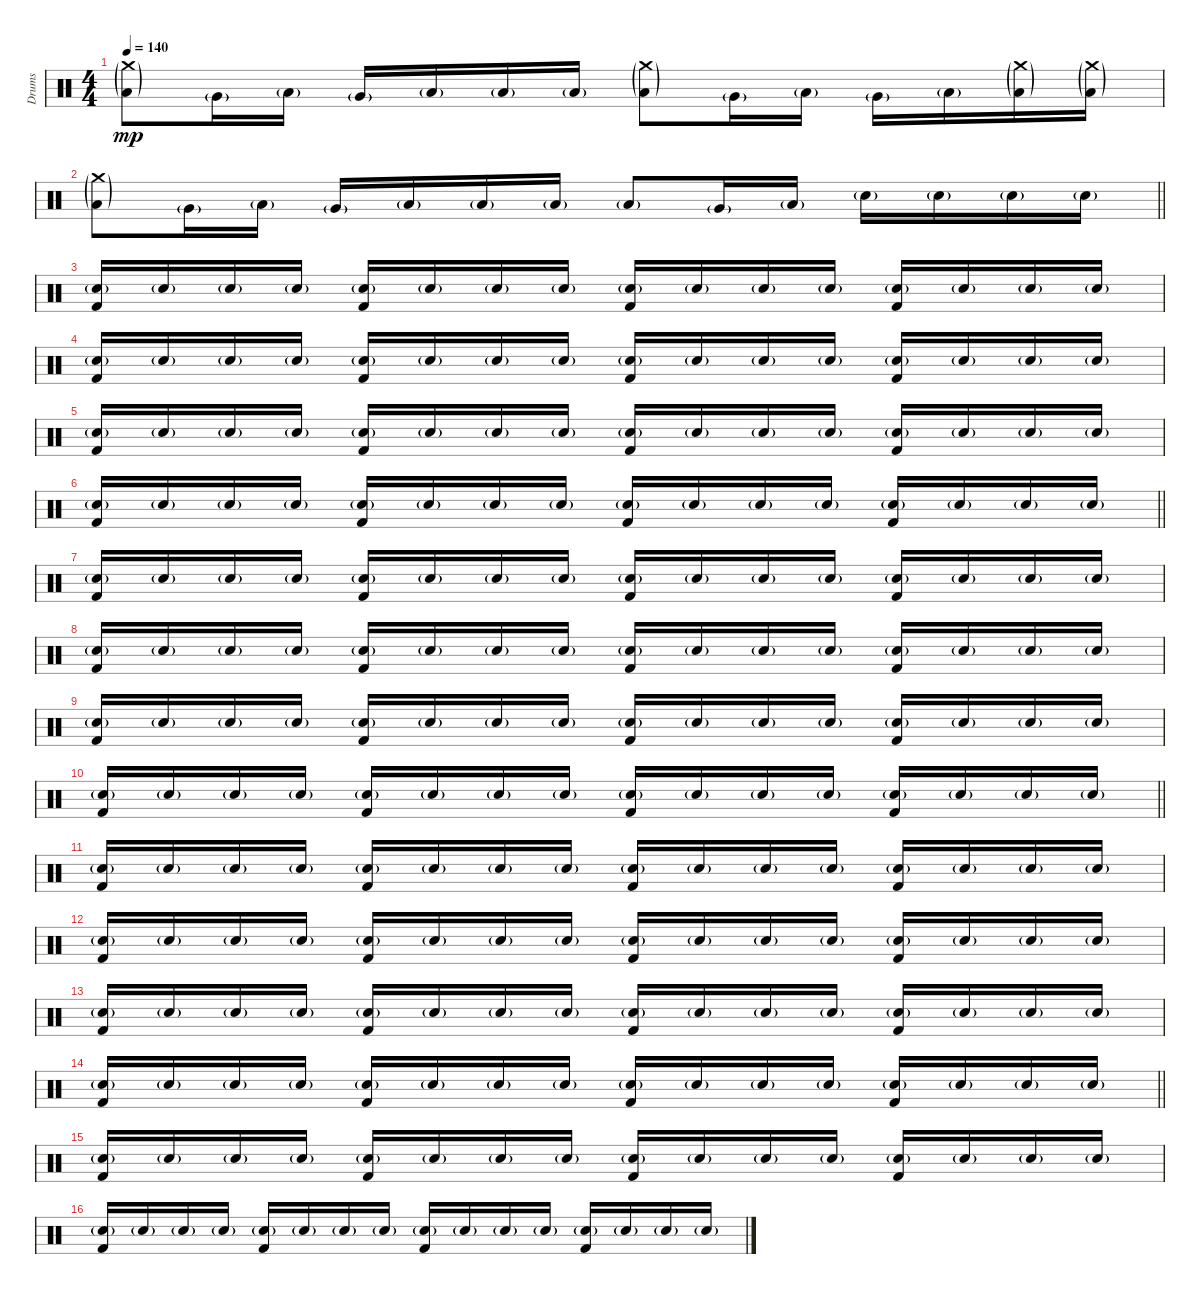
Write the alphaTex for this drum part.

\track ("Drums" "Drums") {instrument percussion}
\staff {score}
\articulation defaults
\ts (4 4)
\tempo 140
\clef neutral
\ks c
("Low Tom (hit)"{g} "Crash medium (hit)"{g}).8{dy mp} "Very Low Tom (hit)"{g}.16 "Low Tom (hit)"{g}.16 "Very Low Tom (hit)"{g}.16 "Low Floor Tom (hit)"{g}.16 "Low Floor Tom (hit)"{g}.16 "Low Floor Tom (hit)"{g}.16 ("Low Tom (hit)"{g} "Crash medium (hit)"{g}).8 "Very Low Tom (hit)"{g}.16 "Low Tom (hit)"{g}.16 "Very Low Tom (hit)"{g}.16 "Low Floor Tom (hit)"{g}.16 ("Low Floor Tom (hit)"{g} "Crash medium (hit)"{g}).16 ("Low Floor Tom (hit)"{g} "Crash medium (hit)"{g}).16 |
\barLineRight lightlight
("Low Tom (hit)"{g} "Crash medium (hit)"{g}).8 "Very Low Tom (hit)"{g}.16 "Low Tom (hit)"{g}.16 "Very Low Tom (hit)"{g}.16 "Low Floor Tom (hit)"{g}.16 "Low Floor Tom (hit)"{g}.16 "Low Floor Tom (hit)"{g}.16 "Low Tom (hit)"{g}.8 "Very Low Tom (hit)"{g}.16 "Low Tom (hit)"{g}.16 "Snare (hit) 2"{g}.16 "Snare (hit) 2"{g}.16 "Snare (hit) 2"{g}.16 "Snare (hit) 2"{g}.16 |
\section ("" "")
("Kick (hit) 2" "Snare (hit) 2"{g}).16 "Snare (hit) 2"{g}.16 "Snare (hit) 2"{g}.16 "Snare (hit) 2"{g}.16 ("Kick (hit) 2" "Snare (hit) 2"{g}).16 "Snare (hit) 2"{g}.16 "Snare (hit) 2"{g}.16 "Snare (hit) 2"{g}.16 ("Kick (hit) 2" "Snare (hit) 2"{g}).16 "Snare (hit) 2"{g}.16 "Snare (hit) 2"{g}.16 "Snare (hit) 2"{g}.16 ("Kick (hit) 2" "Snare (hit) 2"{g}).16 "Snare (hit) 2"{g}.16 "Snare (hit) 2"{g}.16 "Snare (hit) 2"{g}.16 |
("Kick (hit) 2" "Snare (hit) 2"{g}).16 "Snare (hit) 2"{g}.16 "Snare (hit) 2"{g}.16 "Snare (hit) 2"{g}.16 ("Kick (hit) 2" "Snare (hit) 2"{g}).16 "Snare (hit) 2"{g}.16 "Snare (hit) 2"{g}.16 "Snare (hit) 2"{g}.16 ("Kick (hit) 2" "Snare (hit) 2"{g}).16 "Snare (hit) 2"{g}.16 "Snare (hit) 2"{g}.16 "Snare (hit) 2"{g}.16 ("Kick (hit) 2" "Snare (hit) 2"{g}).16 "Snare (hit) 2"{g}.16 "Snare (hit) 2"{g}.16 "Snare (hit) 2"{g}.16 |
("Kick (hit) 2" "Snare (hit) 2"{g}).16 "Snare (hit) 2"{g}.16 "Snare (hit) 2"{g}.16 "Snare (hit) 2"{g}.16 ("Kick (hit) 2" "Snare (hit) 2"{g}).16 "Snare (hit) 2"{g}.16 "Snare (hit) 2"{g}.16 "Snare (hit) 2"{g}.16 ("Kick (hit) 2" "Snare (hit) 2"{g}).16 "Snare (hit) 2"{g}.16 "Snare (hit) 2"{g}.16 "Snare (hit) 2"{g}.16 ("Kick (hit) 2" "Snare (hit) 2"{g}).16 "Snare (hit) 2"{g}.16 "Snare (hit) 2"{g}.16 "Snare (hit) 2"{g}.16 |
\barLineRight lightlight
("Kick (hit) 2" "Snare (hit) 2"{g}).16 "Snare (hit) 2"{g}.16 "Snare (hit) 2"{g}.16 "Snare (hit) 2"{g}.16 ("Kick (hit) 2" "Snare (hit) 2"{g}).16 "Snare (hit) 2"{g}.16 "Snare (hit) 2"{g}.16 "Snare (hit) 2"{g}.16 ("Kick (hit) 2" "Snare (hit) 2"{g}).16 "Snare (hit) 2"{g}.16 "Snare (hit) 2"{g}.16 "Snare (hit) 2"{g}.16 ("Kick (hit) 2" "Snare (hit) 2"{g}).16 "Snare (hit) 2"{g}.16 "Snare (hit) 2"{g}.16 "Snare (hit) 2"{g}.16 |
\section ("" "")
("Kick (hit) 2" "Snare (hit) 2"{g}).16 "Snare (hit) 2"{g}.16 "Snare (hit) 2"{g}.16 "Snare (hit) 2"{g}.16 ("Kick (hit) 2" "Snare (hit) 2"{g}).16 "Snare (hit) 2"{g}.16 "Snare (hit) 2"{g}.16 "Snare (hit) 2"{g}.16 ("Kick (hit) 2" "Snare (hit) 2"{g}).16 "Snare (hit) 2"{g}.16 "Snare (hit) 2"{g}.16 "Snare (hit) 2"{g}.16 ("Kick (hit) 2" "Snare (hit) 2"{g}).16 "Snare (hit) 2"{g}.16 "Snare (hit) 2"{g}.16 "Snare (hit) 2"{g}.16 |
("Kick (hit) 2" "Snare (hit) 2"{g}).16 "Snare (hit) 2"{g}.16 "Snare (hit) 2"{g}.16 "Snare (hit) 2"{g}.16 ("Kick (hit) 2" "Snare (hit) 2"{g}).16 "Snare (hit) 2"{g}.16 "Snare (hit) 2"{g}.16 "Snare (hit) 2"{g}.16 ("Kick (hit) 2" "Snare (hit) 2"{g}).16 "Snare (hit) 2"{g}.16 "Snare (hit) 2"{g}.16 "Snare (hit) 2"{g}.16 ("Kick (hit) 2" "Snare (hit) 2"{g}).16 "Snare (hit) 2"{g}.16 "Snare (hit) 2"{g}.16 "Snare (hit) 2"{g}.16 |
("Kick (hit) 2" "Snare (hit) 2"{g}).16 "Snare (hit) 2"{g}.16 "Snare (hit) 2"{g}.16 "Snare (hit) 2"{g}.16 ("Kick (hit) 2" "Snare (hit) 2"{g}).16 "Snare (hit) 2"{g}.16 "Snare (hit) 2"{g}.16 "Snare (hit) 2"{g}.16 ("Kick (hit) 2" "Snare (hit) 2"{g}).16 "Snare (hit) 2"{g}.16 "Snare (hit) 2"{g}.16 "Snare (hit) 2"{g}.16 ("Kick (hit) 2" "Snare (hit) 2"{g}).16 "Snare (hit) 2"{g}.16 "Snare (hit) 2"{g}.16 "Snare (hit) 2"{g}.16 |
\barLineRight lightlight
("Kick (hit) 2" "Snare (hit) 2"{g}).16 "Snare (hit) 2"{g}.16 "Snare (hit) 2"{g}.16 "Snare (hit) 2"{g}.16 ("Kick (hit) 2" "Snare (hit) 2"{g}).16 "Snare (hit) 2"{g}.16 "Snare (hit) 2"{g}.16 "Snare (hit) 2"{g}.16 ("Kick (hit) 2" "Snare (hit) 2"{g}).16 "Snare (hit) 2"{g}.16 "Snare (hit) 2"{g}.16 "Snare (hit) 2"{g}.16 ("Kick (hit) 2" "Snare (hit) 2"{g}).16 "Snare (hit) 2"{g}.16 "Snare (hit) 2"{g}.16 "Snare (hit) 2"{g}.16 |
\section ("" "")
("Kick (hit) 2" "Snare (hit) 2"{g}).16 "Snare (hit) 2"{g}.16 "Snare (hit) 2"{g}.16 "Snare (hit) 2"{g}.16 ("Kick (hit) 2" "Snare (hit) 2"{g}).16 "Snare (hit) 2"{g}.16 "Snare (hit) 2"{g}.16 "Snare (hit) 2"{g}.16 ("Kick (hit) 2" "Snare (hit) 2"{g}).16 "Snare (hit) 2"{g}.16 "Snare (hit) 2"{g}.16 "Snare (hit) 2"{g}.16 ("Kick (hit) 2" "Snare (hit) 2"{g}).16 "Snare (hit) 2"{g}.16 "Snare (hit) 2"{g}.16 "Snare (hit) 2"{g}.16 |
("Kick (hit) 2" "Snare (hit) 2"{g}).16 "Snare (hit) 2"{g}.16 "Snare (hit) 2"{g}.16 "Snare (hit) 2"{g}.16 ("Kick (hit) 2" "Snare (hit) 2"{g}).16 "Snare (hit) 2"{g}.16 "Snare (hit) 2"{g}.16 "Snare (hit) 2"{g}.16 ("Kick (hit) 2" "Snare (hit) 2"{g}).16 "Snare (hit) 2"{g}.16 "Snare (hit) 2"{g}.16 "Snare (hit) 2"{g}.16 ("Kick (hit) 2" "Snare (hit) 2"{g}).16 "Snare (hit) 2"{g}.16 "Snare (hit) 2"{g}.16 "Snare (hit) 2"{g}.16 |
("Kick (hit) 2" "Snare (hit) 2"{g}).16 "Snare (hit) 2"{g}.16 "Snare (hit) 2"{g}.16 "Snare (hit) 2"{g}.16 ("Kick (hit) 2" "Snare (hit) 2"{g}).16 "Snare (hit) 2"{g}.16 "Snare (hit) 2"{g}.16 "Snare (hit) 2"{g}.16 ("Kick (hit) 2" "Snare (hit) 2"{g}).16 "Snare (hit) 2"{g}.16 "Snare (hit) 2"{g}.16 "Snare (hit) 2"{g}.16 ("Kick (hit) 2" "Snare (hit) 2"{g}).16 "Snare (hit) 2"{g}.16 "Snare (hit) 2"{g}.16 "Snare (hit) 2"{g}.16 |
\barLineRight lightlight
("Kick (hit) 2" "Snare (hit) 2"{g}).16 "Snare (hit) 2"{g}.16 "Snare (hit) 2"{g}.16 "Snare (hit) 2"{g}.16 ("Kick (hit) 2" "Snare (hit) 2"{g}).16 "Snare (hit) 2"{g}.16 "Snare (hit) 2"{g}.16 "Snare (hit) 2"{g}.16 ("Kick (hit) 2" "Snare (hit) 2"{g}).16 "Snare (hit) 2"{g}.16 "Snare (hit) 2"{g}.16 "Snare (hit) 2"{g}.16 ("Kick (hit) 2" "Snare (hit) 2"{g}).16 "Snare (hit) 2"{g}.16 "Snare (hit) 2"{g}.16 "Snare (hit) 2"{g}.16 |
\section ("" "")
("Kick (hit) 2" "Snare (hit) 2"{g}).16 "Snare (hit) 2"{g}.16 "Snare (hit) 2"{g}.16 "Snare (hit) 2"{g}.16 ("Kick (hit) 2" "Snare (hit) 2"{g}).16 "Snare (hit) 2"{g}.16 "Snare (hit) 2"{g}.16 "Snare (hit) 2"{g}.16 ("Kick (hit) 2" "Snare (hit) 2"{g}).16 "Snare (hit) 2"{g}.16 "Snare (hit) 2"{g}.16 "Snare (hit) 2"{g}.16 ("Kick (hit) 2" "Snare (hit) 2"{g}).16 "Snare (hit) 2"{g}.16 "Snare (hit) 2"{g}.16 "Snare (hit) 2"{g}.16 |
("Kick (hit) 2" "Snare (hit) 2"{g}).16 "Snare (hit) 2"{g}.16 "Snare (hit) 2"{g}.16 "Snare (hit) 2"{g}.16 ("Kick (hit) 2" "Snare (hit) 2"{g}).16 "Snare (hit) 2"{g}.16 "Snare (hit) 2"{g}.16 "Snare (hit) 2"{g}.16 ("Kick (hit) 2" "Snare (hit) 2"{g}).16 "Snare (hit) 2"{g}.16 "Snare (hit) 2"{g}.16 "Snare (hit) 2"{g}.16 ("Kick (hit) 2" "Snare (hit) 2"{g}).16 "Snare (hit) 2"{g}.16 "Snare (hit) 2"{g}.16 "Snare (hit) 2"{g}.16
